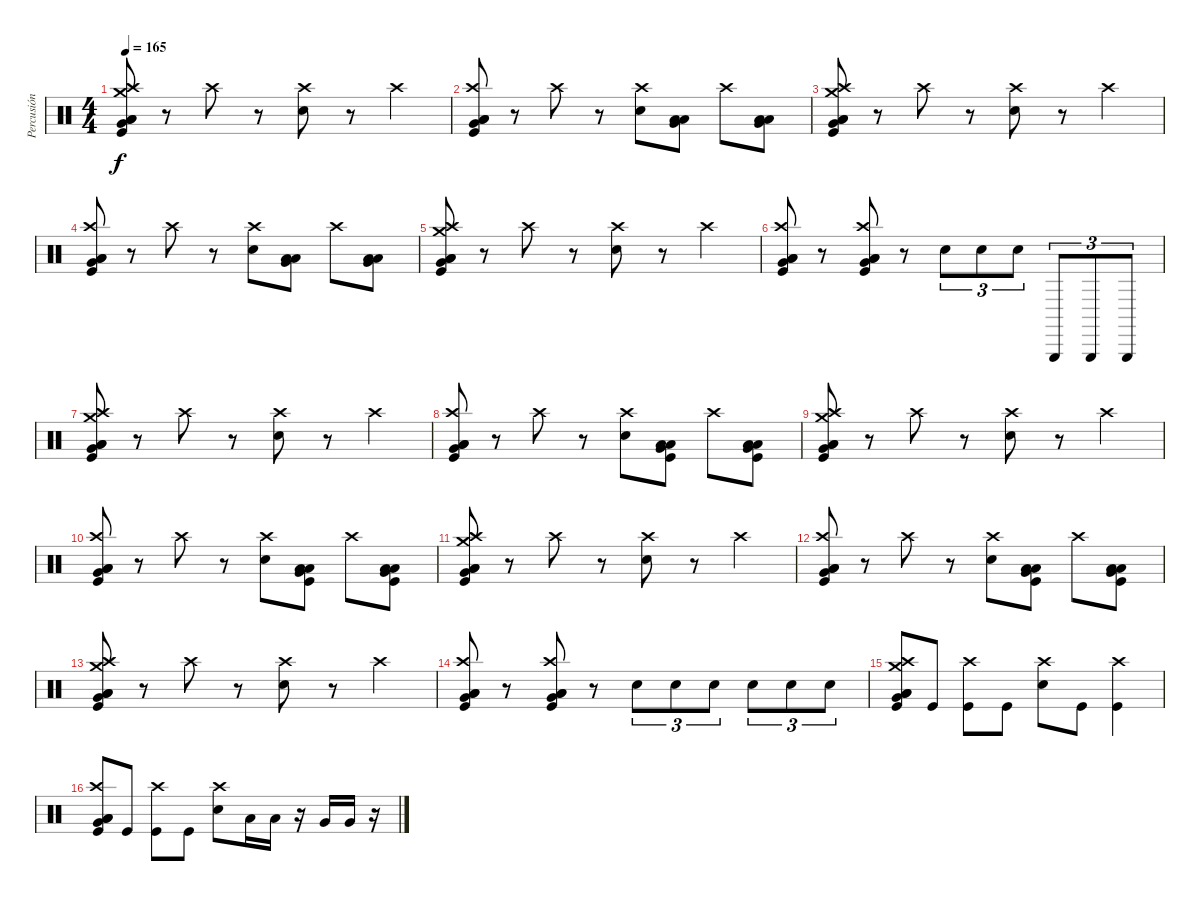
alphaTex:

\track ("Percusión" "Percusión") {instrument percussion}
\staff {score}
\articulation defaults
\ts (4 4)
\tempo 165
\clef neutral
\ks c
("Low Floor Tom (hit)" "Very Low Tom (hit)" "Low Tom (hit)" "Crash medium (hit)" "Crash high (hit)" "Kick (hit)").8{dy f} r.8 "Crash high (hit)".8 r.8 ("Crash high (hit)" "Electric Snare (hit)").8 r.8 "Crash high (hit)".4 |
("Low Floor Tom (hit)" "Very Low Tom (hit)" "Low Tom (hit)" "Crash high (hit)" "Kick (hit)").8 r.8 "Crash high (hit)".8 r.8 ("Crash high (hit)" "Electric Snare (hit)").8 ("Low Floor Tom (hit)" "Very Low Tom (hit)" "Low Tom (hit)").8 "Crash high (hit)".8 ("Low Floor Tom (hit)" "Very Low Tom (hit)" "Low Tom (hit)").8 |
("Low Floor Tom (hit)" "Very Low Tom (hit)" "Low Tom (hit)" "Crash medium (hit)" "Crash high (hit)" "Kick (hit)").8 r.8 "Crash high (hit)".8 r.8 ("Crash high (hit)" "Electric Snare (hit)").8 r.8 "Crash high (hit)".4 |
("Low Floor Tom (hit)" "Very Low Tom (hit)" "Low Tom (hit)" "Crash high (hit)" "Kick (hit)").8 r.8 "Crash high (hit)".8 r.8 ("Crash high (hit)" "Electric Snare (hit)").8 ("Low Floor Tom (hit)" "Very Low Tom (hit)" "Low Tom (hit)").8 "Crash high (hit)".8 ("Low Floor Tom (hit)" "Very Low Tom (hit)" "Low Tom (hit)").8 |
("Low Floor Tom (hit)" "Very Low Tom (hit)" "Low Tom (hit)" "Crash medium (hit)" "Crash high (hit)" "Kick (hit)").8 r.8 "Crash high (hit)".8 r.8 ("Crash high (hit)" "Electric Snare (hit)").8 r.8 "Crash high (hit)".4 |
("Low Floor Tom (hit)" "Very Low Tom (hit)" "Low Tom (hit)" "Crash high (hit)" "Kick (hit)").8 r.8 ("Low Floor Tom (hit)" "Very Low Tom (hit)" "Low Tom (hit)" "Crash high (hit)" "Kick (hit)").8 r.8 "Electric Snare (hit)".8{tu (3 2)} "Electric Snare (hit)".8{tu (3 2)} "Electric Snare (hit)".8{tu (3 2)} "Triangle (hit)".8{tu (3 2)} "Triangle (hit)".8{tu (3 2)} "Triangle (hit)".8{tu (3 2)} |
("Low Floor Tom (hit)" "Very Low Tom (hit)" "Low Tom (hit)" "Crash medium (hit)" "Crash high (hit)" "Kick (hit)").8 r.8 "Crash high (hit)".8 r.8 ("Crash high (hit)" "Electric Snare (hit)").8 r.8 "Crash high (hit)".4 |
("Low Floor Tom (hit)" "Very Low Tom (hit)" "Low Tom (hit)" "Crash high (hit)" "Kick (hit)").8 r.8 "Crash high (hit)".8 r.8 ("Crash high (hit)" "Electric Snare (hit)").8 ("Low Floor Tom (hit)" "Very Low Tom (hit)" "Low Tom (hit)" "Kick (hit)").8 "Crash high (hit)".8 ("Low Floor Tom (hit)" "Very Low Tom (hit)" "Low Tom (hit)" "Kick (hit)").8 |
("Low Floor Tom (hit)" "Very Low Tom (hit)" "Low Tom (hit)" "Crash medium (hit)" "Crash high (hit)" "Kick (hit)").8 r.8 "Crash high (hit)".8 r.8 ("Crash high (hit)" "Electric Snare (hit)").8 r.8 "Crash high (hit)".4 |
("Low Floor Tom (hit)" "Very Low Tom (hit)" "Low Tom (hit)" "Crash high (hit)" "Kick (hit)").8 r.8 "Crash high (hit)".8 r.8 ("Crash high (hit)" "Electric Snare (hit)").8 ("Low Floor Tom (hit)" "Very Low Tom (hit)" "Low Tom (hit)" "Kick (hit)").8 "Crash high (hit)".8 ("Low Floor Tom (hit)" "Very Low Tom (hit)" "Low Tom (hit)" "Kick (hit)").8 |
("Low Floor Tom (hit)" "Very Low Tom (hit)" "Low Tom (hit)" "Crash medium (hit)" "Crash high (hit)" "Kick (hit)").8 r.8 "Crash high (hit)".8 r.8 ("Crash high (hit)" "Electric Snare (hit)").8 r.8 "Crash high (hit)".4 |
("Low Floor Tom (hit)" "Very Low Tom (hit)" "Low Tom (hit)" "Crash high (hit)" "Kick (hit)").8 r.8 "Crash high (hit)".8 r.8 ("Crash high (hit)" "Electric Snare (hit)").8 ("Low Floor Tom (hit)" "Very Low Tom (hit)" "Low Tom (hit)" "Kick (hit)").8 "Crash high (hit)".8 ("Low Floor Tom (hit)" "Very Low Tom (hit)" "Low Tom (hit)" "Kick (hit)").8 |
("Low Floor Tom (hit)" "Very Low Tom (hit)" "Low Tom (hit)" "Crash medium (hit)" "Crash high (hit)" "Kick (hit)").8 r.8 "Crash high (hit)".8 r.8 ("Crash high (hit)" "Electric Snare (hit)").8 r.8 "Crash high (hit)".4 |
("Low Floor Tom (hit)" "Very Low Tom (hit)" "Low Tom (hit)" "Crash high (hit)" "Kick (hit)").8 r.8 ("Low Floor Tom (hit)" "Very Low Tom (hit)" "Low Tom (hit)" "Crash high (hit)" "Kick (hit)").8 r.8 "Electric Snare (hit)".8{tu (3 2)} "Electric Snare (hit)".8{tu (3 2)} "Electric Snare (hit)".8{tu (3 2)} "Electric Snare (hit)".8{tu (3 2)} "Electric Snare (hit)".8{tu (3 2)} "Electric Snare (hit)".8{tu (3 2)} |
("Low Floor Tom (hit)" "Very Low Tom (hit)" "Low Tom (hit)" "Crash medium (hit)" "Crash high (hit)" "Kick (hit)").8 "Kick (hit)".8 ("Crash high (hit)" "Kick (hit)").8 "Kick (hit)".8 ("Crash high (hit)" "Electric Snare (hit)").8 "Kick (hit)".8 ("Crash high (hit)" "Kick (hit)").4 |
("Low Floor Tom (hit)" "Very Low Tom (hit)" "Low Tom (hit)" "Crash high (hit)" "Kick (hit)").8 "Kick (hit)".8 ("Crash high (hit)" "Kick (hit)").8 "Kick (hit)".8 ("Crash high (hit)" "Electric Snare (hit)").8 "Low Tom (hit)".16 "Low Tom (hit)".16 r.16 "Very Low Tom (hit)".16 "Very Low Tom (hit)".16 r.16
